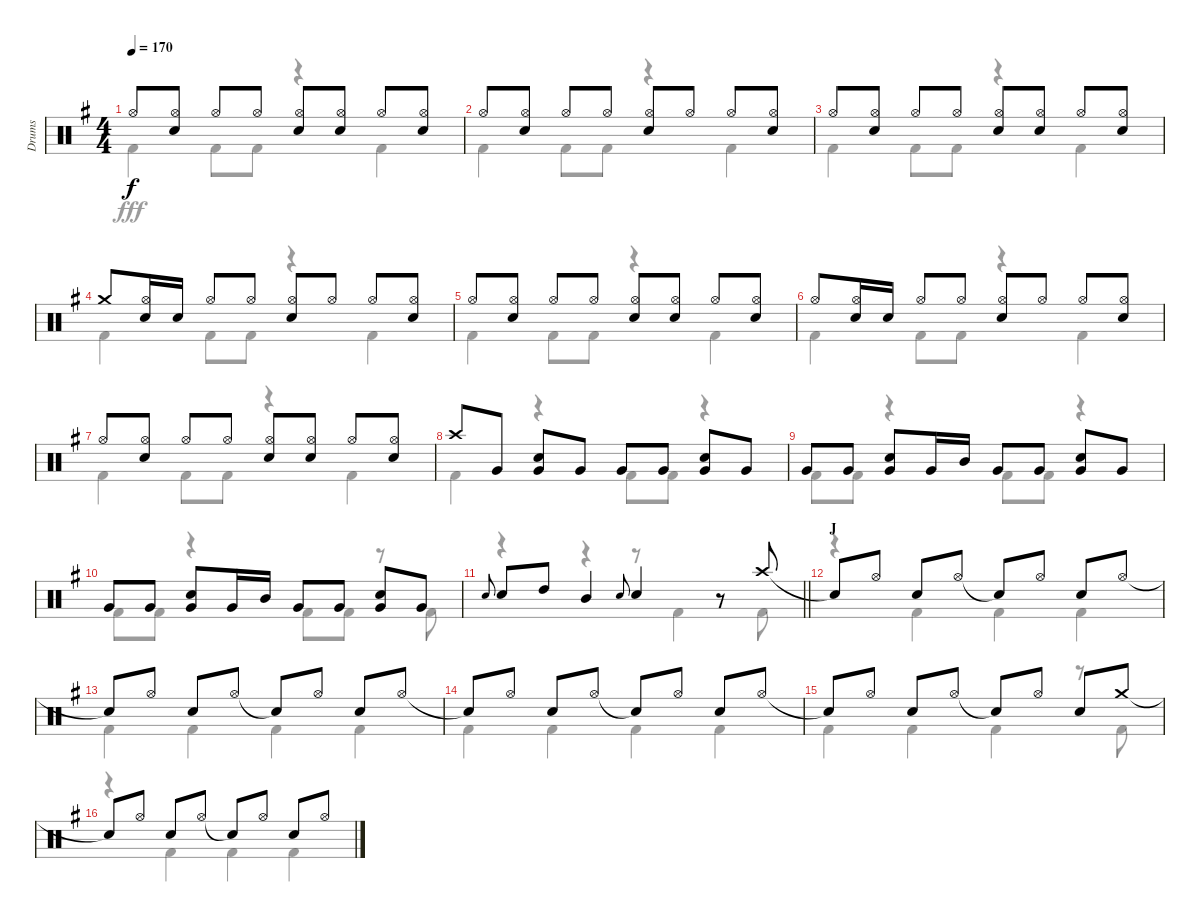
\track ("Drums" "Drums") {instrument percussion}
\staff {score}
\articulation defaults
\voice
\ts (4 4)
\tempo 170
\clef neutral
\ks g "Hi-Hat (open)".8{dy f}
("Hi-Hat (open)" "Snare (hit) 2").8 "Hi-Hat (open)".8 "Hi-Hat (open)".8 ("Hi-Hat (open)" "Snare (hit) 2").8 ("Hi-Hat (open)" "Snare (hit) 2").8 "Hi-Hat (open)".8 ("Hi-Hat (open)" "Snare (hit) 2").8 |
"Hi-Hat (open)".8 ("Hi-Hat (open)" "Snare (hit) 2").8 "Hi-Hat (open)".8 "Hi-Hat (open)".8 ("Hi-Hat (open)" "Snare (hit) 2").8 "Hi-Hat (open)".8 "Hi-Hat (open)".8 ("Hi-Hat (open)" "Snare (hit) 2").8 |
"Hi-Hat (open)".8 ("Hi-Hat (open)" "Snare (hit) 2").8 "Hi-Hat (open)".8 "Hi-Hat (open)".8 ("Hi-Hat (open)" "Snare (hit) 2").8 ("Hi-Hat (open)" "Snare (hit) 2").8 "Hi-Hat (open)".8 ("Hi-Hat (open)" "Snare (hit) 2").8 |
"Crash medium (hit)".8 ("Hi-Hat (open)" "Snare (hit) 2").16 "Snare (hit) 2".16 "Hi-Hat (open)".8 "Hi-Hat (open)".8 ("Hi-Hat (open)" "Snare (hit) 2").8 "Hi-Hat (open)".8 "Hi-Hat (open)".8 ("Hi-Hat (open)" "Snare (hit) 2").8 |
"Hi-Hat (open)".8 ("Hi-Hat (open)" "Snare (hit) 2").8 "Hi-Hat (open)".8 "Hi-Hat (open)".8 ("Hi-Hat (open)" "Snare (hit) 2").8 ("Hi-Hat (open)" "Snare (hit) 2").8 "Hi-Hat (open)".8 ("Hi-Hat (open)" "Snare (hit) 2").8 |
"Hi-Hat (open)".8 ("Hi-Hat (open)" "Snare (hit) 2").16 "Snare (hit) 2".16 "Hi-Hat (open)".8 "Hi-Hat (open)".8 ("Hi-Hat (open)" "Snare (hit) 2").8 "Hi-Hat (open)".8 "Hi-Hat (open)".8 ("Hi-Hat (open)" "Snare (hit) 2").8 |
"Hi-Hat (open)".8 ("Hi-Hat (open)" "Snare (hit) 2").8 "Hi-Hat (open)".8 "Hi-Hat (open)".8 ("Hi-Hat (open)" "Snare (hit) 2").8 ("Hi-Hat (open)" "Snare (hit) 2").8 "Hi-Hat (open)".8 ("Hi-Hat (open)" "Snare (hit) 2").8 |
"Crash high (hit)".8 "Very Low Tom (hit)".8 ("Snare (hit) 2" "Very Low Tom (hit)").8 "Very Low Tom (hit)".8 "Very Low Tom (hit)".8 "Very Low Tom (hit)".8 ("Snare (hit) 2" "Very Low Tom (hit)").8 "Very Low Tom (hit)".8 |
"Very Low Tom (hit)".8 "Very Low Tom (hit)".8 ("Snare (hit) 2" "Very Low Tom (hit)").8 "Very Low Tom (hit)".16 "Mid Tom (hit)".16 "Very Low Tom (hit)".8 "Very Low Tom (hit)".8 ("Snare (hit) 2" "Very Low Tom (hit)").8 "Very Low Tom (hit)".8 |
"Very Low Tom (hit)".8 "Very Low Tom (hit)".8 ("Snare (hit) 2" "Very Low Tom (hit)").8 "Very Low Tom (hit)".16 "Mid Tom (hit)".16 "Very Low Tom (hit)".8 "Very Low Tom (hit)".8 ("Snare (hit) 2" "Very Low Tom (hit)").8 "Very Low Tom (hit)".8 |
\barLineRight lightlight "Snare (hit) 2".8{gr onbeat} "Snare (hit) 2".8 "High Tom (hit)".8 "Mid Tom (hit)".4 "Snare (hit) 2".8{gr onbeat} "Snare (hit) 2".4
r.8 "Crash high (hit)".8 |
\section ("" "J")
"Snare (hit)"{t}.8 "Hi-Hat (open)".8 "Snare (hit) 2".8 "Hi-Hat (open)".8 "Snare (hit)"{t}.8 "Hi-Hat (open)".8 "Snare (hit) 2".8 "Hi-Hat (open)".8 |
"Snare (hit)"{t}.8 "Hi-Hat (open)".8 "Snare (hit) 2".8 "Hi-Hat (open)".8 "Snare (hit)"{t}.8 "Hi-Hat (open)".8 "Snare (hit) 2".8 "Hi-Hat (open)".8 |
"Snare (hit)"{t}.8 "Hi-Hat (open)".8 "Snare (hit) 2".8 "Hi-Hat (open)".8 "Snare (hit)"{t}.8 "Hi-Hat (open)".8 "Snare (hit) 2".8 "Hi-Hat (open)".8 |
"Snare (hit)"{t}.8 "Hi-Hat (open)".8 "Snare (hit) 2".8 "Hi-Hat (open)".8 "Snare (hit)"{t}.8 "Hi-Hat (open)".8 "Snare (hit) 2".8 "Crash medium (hit)".8 |
"Snare (hit)"{t}.8 "Hi-Hat (open)".8 "Snare (hit) 2".8 "Hi-Hat (open)".8 "Snare (hit)"{t}.8 "Hi-Hat (open)".8 "Snare (hit) 2".8 "Hi-Hat (open)".8
\voice
\clef neutral
\ottava regular
\simile none
\ks g "Kick (hit) 2".4{dy fff} "Kick (hit) 2".8 "Kick (hit) 2".8
r.4 "Kick (hit) 2".4 |
"Kick (hit) 2".4 "Kick (hit) 2".8 "Kick (hit) 2".8 r.4 "Kick (hit) 2".4 |
"Kick (hit) 2".4 "Kick (hit) 2".8 "Kick (hit) 2".8 r.4 "Kick (hit) 2".4 |
"Kick (hit) 2".4 "Kick (hit) 2".8 "Kick (hit) 2".8 r.4 "Kick (hit) 2".4 |
"Kick (hit) 2".4 "Kick (hit) 2".8 "Kick (hit) 2".8 r.4 "Kick (hit) 2".4 |
"Kick (hit) 2".4 "Kick (hit) 2".8 "Kick (hit) 2".8 r.4 "Kick (hit) 2".4 |
"Kick (hit) 2".4 "Kick (hit) 2".8 "Kick (hit) 2".8 r.4 "Kick (hit) 2".4 |
"Kick (hit) 2".4 r.4 "Kick (hit) 2".8 "Kick (hit) 2".8 r.4 |
"Kick (hit) 2".8 "Kick (hit) 2".8 r.4 "Kick (hit) 2".8 "Kick (hit) 2".8 r.4 |
"Kick (hit) 2".8 "Kick (hit) 2".8 r.4 "Kick (hit) 2".8 "Kick (hit) 2".8 r.8 "Kick (hit) 2".8 |
\barLineRight lightlight
r.4 r.4 r.8 "Kick (hit) 2".4 "Kick (hit) 2".8 |
r.4 "Kick (hit) 2".4 "Kick (hit) 2".4 "Kick (hit) 2".4 |
"Kick (hit) 2".4 "Kick (hit) 2".4 "Kick (hit) 2".4 "Kick (hit) 2".4 |
"Kick (hit) 2".4 "Kick (hit) 2".4 "Kick (hit) 2".4 "Kick (hit) 2".4 |
"Kick (hit) 2".4 "Kick (hit) 2".4 "Kick (hit) 2".4 r.8 "Kick (hit) 2".8 |
r.4 "Kick (hit) 2".4 "Kick (hit) 2".4 "Kick (hit) 2".4
